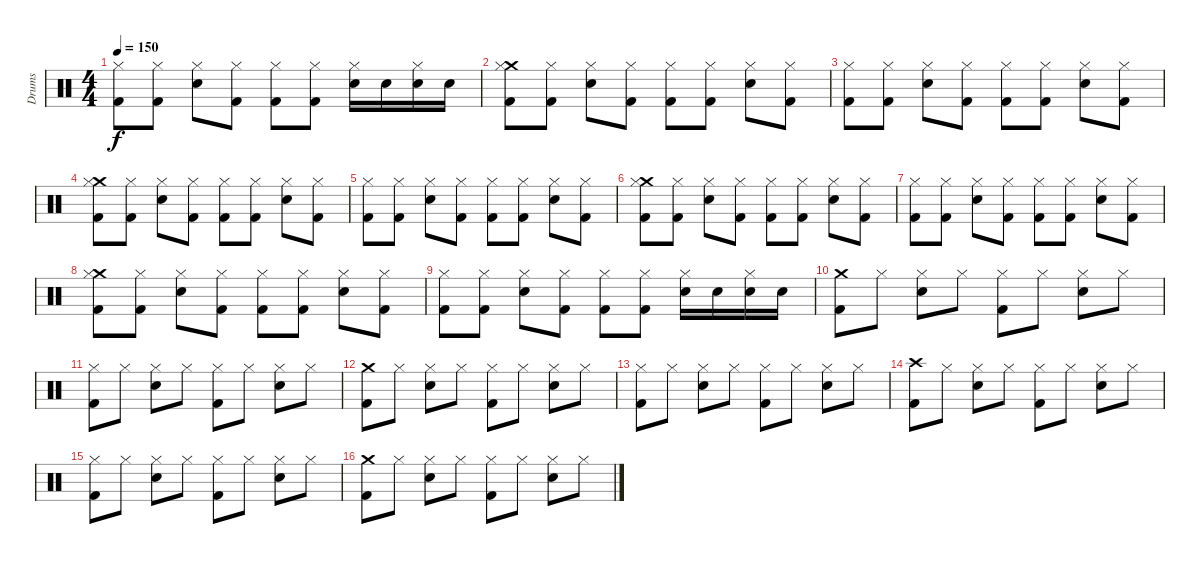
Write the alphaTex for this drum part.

\track ("Drums" "Drums") {instrument percussion}
\staff {score}
\articulation defaults
\ts (4 4)
\tempo 150
\clef neutral
\ks c
("Hi-Hat (closed)" "Kick (hit) 2").8{dy f} ("Hi-Hat (closed)" "Kick (hit) 2").8 ("Hi-Hat (closed)" "Snare (hit) 2").8 ("Hi-Hat (closed)" "Kick (hit) 2").8 ("Hi-Hat (closed)" "Kick (hit) 2").8 ("Kick (hit) 2" "Hi-Hat (closed)").8 ("Snare (hit) 2" "Hi-Hat (closed)").16 "Snare (hit) 2".16 ("Snare (hit) 2" "Hi-Hat (closed)").16 "Snare (hit) 2".16 |
("Crash medium (hit)" "Hi-Hat (closed)" "Kick (hit) 2").8 ("Hi-Hat (closed)" "Kick (hit) 2").8 ("Hi-Hat (closed)" "Snare (hit) 2").8 ("Hi-Hat (closed)" "Kick (hit) 2").8 ("Hi-Hat (closed)" "Kick (hit) 2").8 ("Hi-Hat (closed)" "Kick (hit) 2").8 ("Hi-Hat (closed)" "Snare (hit) 2").8 ("Hi-Hat (closed)" "Kick (hit) 2").8 |
("Hi-Hat (closed)" "Kick (hit) 2").8 ("Hi-Hat (closed)" "Kick (hit) 2").8 ("Hi-Hat (closed)" "Snare (hit) 2").8 ("Hi-Hat (closed)" "Kick (hit) 2").8 ("Hi-Hat (closed)" "Kick (hit) 2").8 ("Hi-Hat (closed)" "Kick (hit) 2").8 ("Hi-Hat (closed)" "Snare (hit) 2").8 ("Hi-Hat (closed)" "Kick (hit) 2").8 |
("Crash medium (hit)" "Hi-Hat (closed)" "Kick (hit) 2").8 ("Hi-Hat (closed)" "Kick (hit) 2").8 ("Hi-Hat (closed)" "Snare (hit) 2").8 ("Hi-Hat (closed)" "Kick (hit) 2").8 ("Hi-Hat (closed)" "Kick (hit) 2").8 ("Hi-Hat (closed)" "Kick (hit) 2").8 ("Hi-Hat (closed)" "Snare (hit) 2").8 ("Hi-Hat (closed)" "Kick (hit) 2").8 |
("Hi-Hat (closed)" "Kick (hit) 2").8 ("Hi-Hat (closed)" "Kick (hit) 2").8 ("Hi-Hat (closed)" "Snare (hit) 2").8 ("Hi-Hat (closed)" "Kick (hit) 2").8 ("Hi-Hat (closed)" "Kick (hit) 2").8 ("Hi-Hat (closed)" "Kick (hit) 2").8 ("Hi-Hat (closed)" "Snare (hit) 2").8 ("Hi-Hat (closed)" "Kick (hit) 2").8 |
("Crash medium (hit)" "Hi-Hat (closed)" "Kick (hit) 2").8 ("Hi-Hat (closed)" "Kick (hit) 2").8 ("Hi-Hat (closed)" "Snare (hit) 2").8 ("Hi-Hat (closed)" "Kick (hit) 2").8 ("Hi-Hat (closed)" "Kick (hit) 2").8 ("Hi-Hat (closed)" "Kick (hit) 2").8 ("Hi-Hat (closed)" "Snare (hit) 2").8 ("Hi-Hat (closed)" "Kick (hit) 2").8 |
("Hi-Hat (closed)" "Kick (hit) 2").8 ("Hi-Hat (closed)" "Kick (hit) 2").8 ("Hi-Hat (closed)" "Snare (hit) 2").8 ("Hi-Hat (closed)" "Kick (hit) 2").8 ("Hi-Hat (closed)" "Kick (hit) 2").8 ("Hi-Hat (closed)" "Kick (hit) 2").8 ("Hi-Hat (closed)" "Snare (hit) 2").8 ("Hi-Hat (closed)" "Kick (hit) 2").8 |
("Crash medium (hit)" "Hi-Hat (closed)" "Kick (hit) 2").8 ("Hi-Hat (closed)" "Kick (hit) 2").8 ("Hi-Hat (closed)" "Snare (hit) 2").8 ("Hi-Hat (closed)" "Kick (hit) 2").8 ("Hi-Hat (closed)" "Kick (hit) 2").8 ("Hi-Hat (closed)" "Kick (hit) 2").8 ("Hi-Hat (closed)" "Snare (hit) 2").8 ("Hi-Hat (closed)" "Kick (hit) 2").8 |
("Hi-Hat (closed)" "Kick (hit) 2").8 ("Hi-Hat (closed)" "Kick (hit) 2").8 ("Hi-Hat (closed)" "Snare (hit) 2").8 ("Hi-Hat (closed)" "Kick (hit) 2").8 ("Hi-Hat (closed)" "Kick (hit) 2").8 ("Hi-Hat (closed)" "Kick (hit) 2").8 ("Snare (hit) 2" "Hi-Hat (closed)").16 "Snare (hit) 2".16 ("Snare (hit) 2" "Hi-Hat (closed)").16 "Snare (hit) 2".16 |
("Crash medium (hit)" "Kick (hit) 2").8 "Hi-Hat (closed)".8 ("Hi-Hat (closed)" "Snare (hit) 2").8 "Hi-Hat (closed)".8 ("Hi-Hat (closed)" "Kick (hit) 2").8 "Hi-Hat (closed)".8 ("Hi-Hat (closed)" "Snare (hit) 2").8 "Hi-Hat (closed)".8 |
("Hi-Hat (closed)" "Kick (hit) 2").8 "Hi-Hat (closed)".8 ("Hi-Hat (closed)" "Snare (hit) 2").8 "Hi-Hat (closed)".8 ("Hi-Hat (closed)" "Kick (hit) 2").8 "Hi-Hat (closed)".8 ("Hi-Hat (closed)" "Snare (hit) 2").8 "Hi-Hat (closed)".8 |
("Crash medium (hit)" "Kick (hit) 2").8 "Hi-Hat (closed)".8 ("Hi-Hat (closed)" "Snare (hit) 2").8 "Hi-Hat (closed)".8 ("Hi-Hat (closed)" "Kick (hit) 2").8 "Hi-Hat (closed)".8 ("Hi-Hat (closed)" "Snare (hit) 2").8 "Hi-Hat (closed)".8 |
("Hi-Hat (closed)" "Kick (hit) 2").8 "Hi-Hat (closed)".8 ("Hi-Hat (closed)" "Snare (hit) 2").8 "Hi-Hat (closed)".8 ("Hi-Hat (closed)" "Kick (hit) 2").8 "Hi-Hat (closed)".8 ("Hi-Hat (closed)" "Snare (hit) 2").8 "Hi-Hat (closed)".8 |
("Crash high (hit)" "Kick (hit) 2").8 "Hi-Hat (closed)".8 ("Hi-Hat (closed)" "Snare (hit) 2").8 "Hi-Hat (closed)".8 ("Hi-Hat (closed)" "Kick (hit) 2").8 "Hi-Hat (closed)".8 ("Hi-Hat (closed)" "Snare (hit) 2").8 "Hi-Hat (closed)".8 |
("Hi-Hat (closed)" "Kick (hit) 2").8 "Hi-Hat (closed)".8 ("Hi-Hat (closed)" "Snare (hit) 2").8 "Hi-Hat (closed)".8 ("Hi-Hat (closed)" "Kick (hit) 2").8 "Hi-Hat (closed)".8 ("Hi-Hat (closed)" "Snare (hit) 2").8 "Hi-Hat (closed)".8 |
("Crash medium (hit)" "Kick (hit) 2").8 "Hi-Hat (closed)".8 ("Hi-Hat (closed)" "Snare (hit) 2").8 "Hi-Hat (closed)".8 ("Hi-Hat (closed)" "Kick (hit) 2").8 "Hi-Hat (closed)".8 ("Hi-Hat (closed)" "Snare (hit) 2").8 "Hi-Hat (closed)".8
